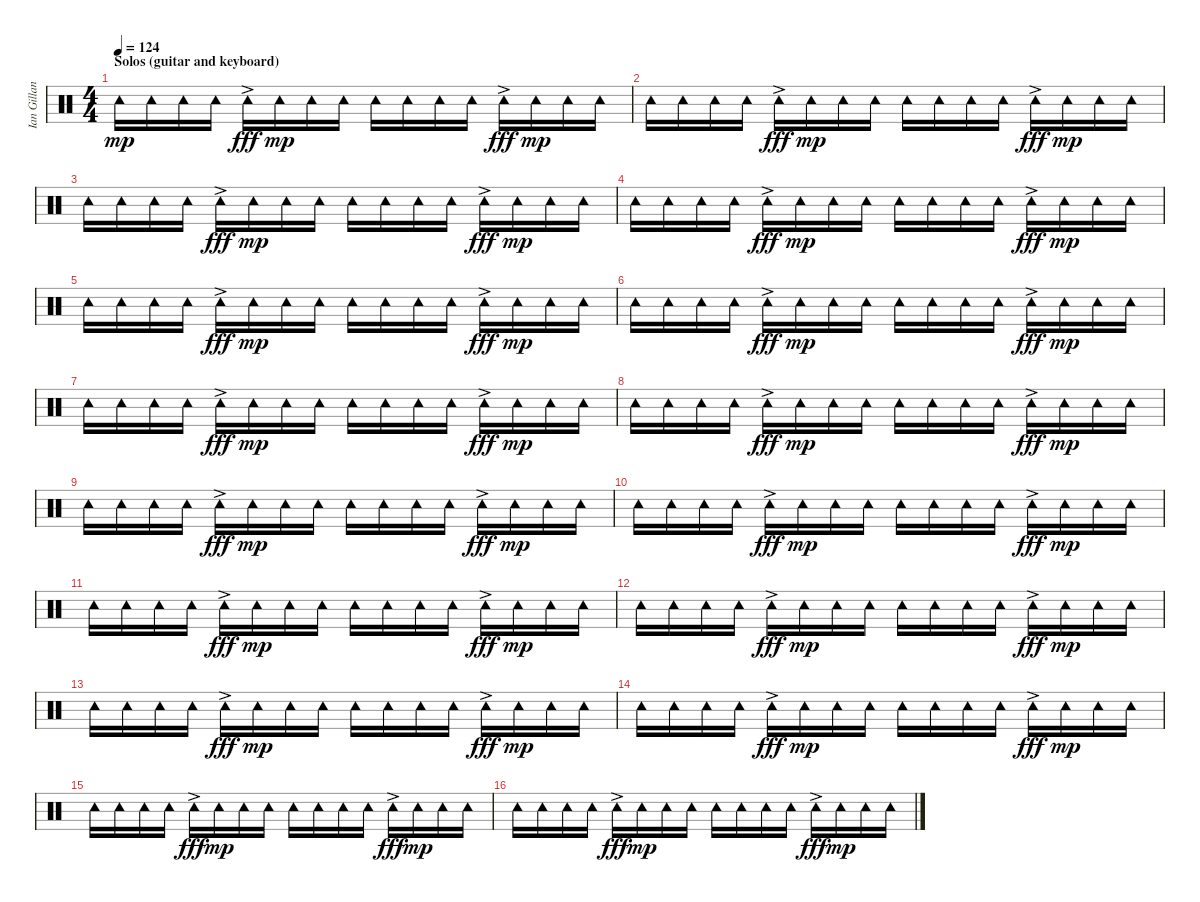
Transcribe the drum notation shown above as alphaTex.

\track ("Ian Gillan (percussions)" "Ian Gillan") {instrument percussion}
\staff {score}
\articulation defaults
\ts (4 4)
\section ("" "Solos (guitar and keyboard)")
\tempo 124
\clef neutral
\ks c "Tambourine (hit)".16{dy mp} "Tambourine (hit)".16 "Tambourine (hit)".16 "Tambourine (hit)".16 "Tambourine (hit)"{ac}.16{dy fff} "Tambourine (hit)".16{dy mp} "Tambourine (hit)".16 "Tambourine (hit)".16 "Tambourine (hit)".16 "Tambourine (hit)".16 "Tambourine (hit)".16 "Tambourine (hit)".16 "Tambourine (hit)"{ac}.16{dy fff} "Tambourine (hit)".16{dy mp} "Tambourine (hit)".16 "Tambourine (hit)".16
|
"Tambourine (hit)".16 "Tambourine (hit)".16 "Tambourine (hit)".16 "Tambourine (hit)".16 "Tambourine (hit)"{ac}.16{dy fff} "Tambourine (hit)".16{dy mp} "Tambourine (hit)".16 "Tambourine (hit)".16 "Tambourine (hit)".16 "Tambourine (hit)".16 "Tambourine (hit)".16 "Tambourine (hit)".16 "Tambourine (hit)"{ac}.16{dy fff} "Tambourine (hit)".16{dy mp} "Tambourine (hit)".16 "Tambourine (hit)".16 |
"Tambourine (hit)".16 "Tambourine (hit)".16 "Tambourine (hit)".16 "Tambourine (hit)".16 "Tambourine (hit)"{ac}.16{dy fff} "Tambourine (hit)".16{dy mp} "Tambourine (hit)".16 "Tambourine (hit)".16 "Tambourine (hit)".16 "Tambourine (hit)".16 "Tambourine (hit)".16 "Tambourine (hit)".16 "Tambourine (hit)"{ac}.16{dy fff} "Tambourine (hit)".16{dy mp} "Tambourine (hit)".16 "Tambourine (hit)".16 |
"Tambourine (hit)".16 "Tambourine (hit)".16 "Tambourine (hit)".16 "Tambourine (hit)".16 "Tambourine (hit)"{ac}.16{dy fff} "Tambourine (hit)".16{dy mp} "Tambourine (hit)".16 "Tambourine (hit)".16 "Tambourine (hit)".16 "Tambourine (hit)".16 "Tambourine (hit)".16 "Tambourine (hit)".16 "Tambourine (hit)"{ac}.16{dy fff} "Tambourine (hit)".16{dy mp} "Tambourine (hit)".16 "Tambourine (hit)".16 |
"Tambourine (hit)".16 "Tambourine (hit)".16 "Tambourine (hit)".16 "Tambourine (hit)".16 "Tambourine (hit)"{ac}.16{dy fff} "Tambourine (hit)".16{dy mp} "Tambourine (hit)".16 "Tambourine (hit)".16 "Tambourine (hit)".16 "Tambourine (hit)".16 "Tambourine (hit)".16 "Tambourine (hit)".16 "Tambourine (hit)"{ac}.16{dy fff} "Tambourine (hit)".16{dy mp} "Tambourine (hit)".16 "Tambourine (hit)".16 |
"Tambourine (hit)".16 "Tambourine (hit)".16 "Tambourine (hit)".16 "Tambourine (hit)".16 "Tambourine (hit)"{ac}.16{dy fff} "Tambourine (hit)".16{dy mp} "Tambourine (hit)".16 "Tambourine (hit)".16 "Tambourine (hit)".16 "Tambourine (hit)".16 "Tambourine (hit)".16 "Tambourine (hit)".16 "Tambourine (hit)"{ac}.16{dy fff} "Tambourine (hit)".16{dy mp} "Tambourine (hit)".16 "Tambourine (hit)".16 |
"Tambourine (hit)".16 "Tambourine (hit)".16 "Tambourine (hit)".16 "Tambourine (hit)".16 "Tambourine (hit)"{ac}.16{dy fff} "Tambourine (hit)".16{dy mp} "Tambourine (hit)".16 "Tambourine (hit)".16 "Tambourine (hit)".16 "Tambourine (hit)".16 "Tambourine (hit)".16 "Tambourine (hit)".16 "Tambourine (hit)"{ac}.16{dy fff} "Tambourine (hit)".16{dy mp} "Tambourine (hit)".16 "Tambourine (hit)".16 |
"Tambourine (hit)".16 "Tambourine (hit)".16 "Tambourine (hit)".16 "Tambourine (hit)".16 "Tambourine (hit)"{ac}.16{dy fff} "Tambourine (hit)".16{dy mp} "Tambourine (hit)".16 "Tambourine (hit)".16 "Tambourine (hit)".16 "Tambourine (hit)".16 "Tambourine (hit)".16 "Tambourine (hit)".16 "Tambourine (hit)"{ac}.16{dy fff} "Tambourine (hit)".16{dy mp} "Tambourine (hit)".16 "Tambourine (hit)".16 |
"Tambourine (hit)".16 "Tambourine (hit)".16 "Tambourine (hit)".16 "Tambourine (hit)".16 "Tambourine (hit)"{ac}.16{dy fff} "Tambourine (hit)".16{dy mp} "Tambourine (hit)".16 "Tambourine (hit)".16 "Tambourine (hit)".16 "Tambourine (hit)".16 "Tambourine (hit)".16 "Tambourine (hit)".16 "Tambourine (hit)"{ac}.16{dy fff} "Tambourine (hit)".16{dy mp} "Tambourine (hit)".16 "Tambourine (hit)".16 |
"Tambourine (hit)".16 "Tambourine (hit)".16 "Tambourine (hit)".16 "Tambourine (hit)".16 "Tambourine (hit)"{ac}.16{dy fff} "Tambourine (hit)".16{dy mp} "Tambourine (hit)".16 "Tambourine (hit)".16 "Tambourine (hit)".16 "Tambourine (hit)".16 "Tambourine (hit)".16 "Tambourine (hit)".16 "Tambourine (hit)"{ac}.16{dy fff} "Tambourine (hit)".16{dy mp} "Tambourine (hit)".16 "Tambourine (hit)".16 |
"Tambourine (hit)".16 "Tambourine (hit)".16 "Tambourine (hit)".16 "Tambourine (hit)".16 "Tambourine (hit)"{ac}.16{dy fff} "Tambourine (hit)".16{dy mp} "Tambourine (hit)".16 "Tambourine (hit)".16 "Tambourine (hit)".16 "Tambourine (hit)".16 "Tambourine (hit)".16 "Tambourine (hit)".16 "Tambourine (hit)"{ac}.16{dy fff} "Tambourine (hit)".16{dy mp} "Tambourine (hit)".16 "Tambourine (hit)".16 |
"Tambourine (hit)".16 "Tambourine (hit)".16 "Tambourine (hit)".16 "Tambourine (hit)".16 "Tambourine (hit)"{ac}.16{dy fff} "Tambourine (hit)".16{dy mp} "Tambourine (hit)".16 "Tambourine (hit)".16 "Tambourine (hit)".16 "Tambourine (hit)".16 "Tambourine (hit)".16 "Tambourine (hit)".16 "Tambourine (hit)"{ac}.16{dy fff} "Tambourine (hit)".16{dy mp} "Tambourine (hit)".16 "Tambourine (hit)".16 |
"Tambourine (hit)".16 "Tambourine (hit)".16 "Tambourine (hit)".16 "Tambourine (hit)".16 "Tambourine (hit)"{ac}.16{dy fff} "Tambourine (hit)".16{dy mp} "Tambourine (hit)".16 "Tambourine (hit)".16 "Tambourine (hit)".16 "Tambourine (hit)".16 "Tambourine (hit)".16 "Tambourine (hit)".16 "Tambourine (hit)"{ac}.16{dy fff} "Tambourine (hit)".16{dy mp} "Tambourine (hit)".16 "Tambourine (hit)".16 |
"Tambourine (hit)".16 "Tambourine (hit)".16 "Tambourine (hit)".16 "Tambourine (hit)".16 "Tambourine (hit)"{ac}.16{dy fff} "Tambourine (hit)".16{dy mp} "Tambourine (hit)".16 "Tambourine (hit)".16 "Tambourine (hit)".16 "Tambourine (hit)".16 "Tambourine (hit)".16 "Tambourine (hit)".16 "Tambourine (hit)"{ac}.16{dy fff} "Tambourine (hit)".16{dy mp} "Tambourine (hit)".16 "Tambourine (hit)".16 |
"Tambourine (hit)".16 "Tambourine (hit)".16 "Tambourine (hit)".16 "Tambourine (hit)".16 "Tambourine (hit)"{ac}.16{dy fff} "Tambourine (hit)".16{dy mp} "Tambourine (hit)".16 "Tambourine (hit)".16 "Tambourine (hit)".16 "Tambourine (hit)".16 "Tambourine (hit)".16 "Tambourine (hit)".16 "Tambourine (hit)"{ac}.16{dy fff} "Tambourine (hit)".16{dy mp} "Tambourine (hit)".16 "Tambourine (hit)".16 |
"Tambourine (hit)".16 "Tambourine (hit)".16 "Tambourine (hit)".16 "Tambourine (hit)".16 "Tambourine (hit)"{ac}.16{dy fff} "Tambourine (hit)".16{dy mp} "Tambourine (hit)".16 "Tambourine (hit)".16 "Tambourine (hit)".16 "Tambourine (hit)".16 "Tambourine (hit)".16 "Tambourine (hit)".16 "Tambourine (hit)"{ac}.16{dy fff} "Tambourine (hit)".16{dy mp} "Tambourine (hit)".16 "Tambourine (hit)".16
